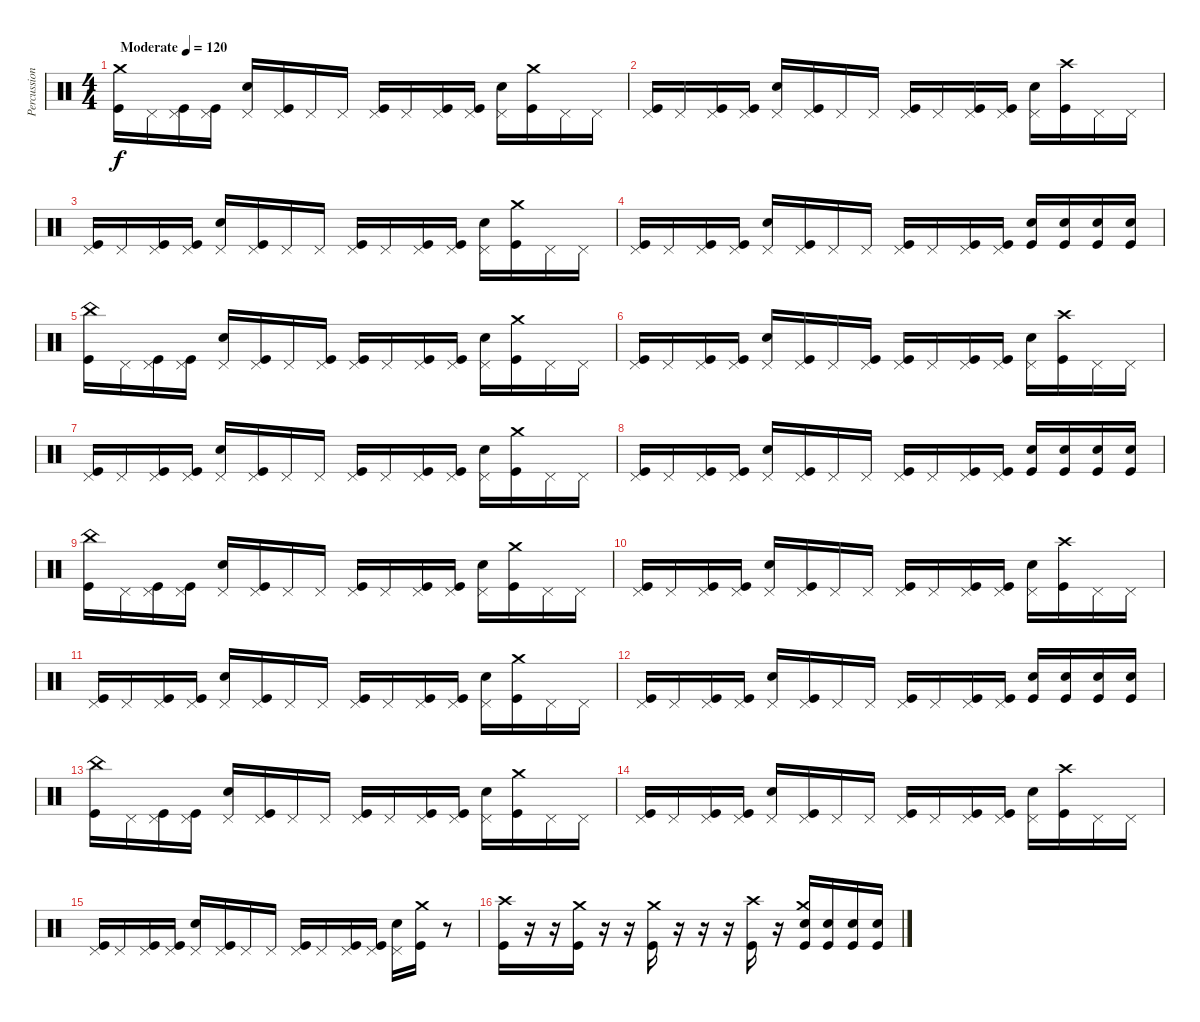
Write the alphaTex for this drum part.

\track ("Percussion" "Percussion") {instrument percussion}
\staff {score}
\articulation defaults
\ts (4 4)
\tempo (120 "Moderate")
\clef neutral
\ks c
("Kick (hit)" "Crash medium (hit)").16{dy f} "Pedal Hi-Hat (hit)".16 ("Kick (hit)" "Pedal Hi-Hat (hit)").16 ("Kick (hit)" "Pedal Hi-Hat (hit)").16 ("Electric Snare (hit)" "Pedal Hi-Hat (hit)").16 ("Kick (hit)" "Pedal Hi-Hat (hit)").16 "Pedal Hi-Hat (hit)".16 "Pedal Hi-Hat (hit)".16 ("Kick (hit)" "Pedal Hi-Hat (hit)").16 "Pedal Hi-Hat (hit)".16 ("Kick (hit)" "Pedal Hi-Hat (hit)").16 ("Kick (hit)" "Pedal Hi-Hat (hit)").16 ("Electric Snare (hit)" "Pedal Hi-Hat (hit)").16 ("Kick (hit)" "Crash medium (hit)").16 "Pedal Hi-Hat (hit)".16 "Pedal Hi-Hat (hit)".16 |
("Kick (hit)" "Pedal Hi-Hat (hit)").16 "Pedal Hi-Hat (hit)".16 ("Kick (hit)" "Pedal Hi-Hat (hit)").16 ("Kick (hit)" "Pedal Hi-Hat (hit)").16 ("Electric Snare (hit)" "Pedal Hi-Hat (hit)").16 ("Kick (hit)" "Pedal Hi-Hat (hit)").16 "Pedal Hi-Hat (hit)".16 "Pedal Hi-Hat (hit)".16 ("Kick (hit)" "Pedal Hi-Hat (hit)").16 "Pedal Hi-Hat (hit)".16 ("Kick (hit)" "Pedal Hi-Hat (hit)").16 ("Kick (hit)" "Pedal Hi-Hat (hit)").16 ("Electric Snare (hit)" "Pedal Hi-Hat (hit)").16 ("Kick (hit)" "Crash high (hit)").16 "Pedal Hi-Hat (hit)".16 "Pedal Hi-Hat (hit)".16 |
("Kick (hit)" "Pedal Hi-Hat (hit)").16 "Pedal Hi-Hat (hit)".16 ("Kick (hit)" "Pedal Hi-Hat (hit)").16 ("Kick (hit)" "Pedal Hi-Hat (hit)").16 ("Electric Snare (hit)" "Pedal Hi-Hat (hit)").16 ("Kick (hit)" "Pedal Hi-Hat (hit)").16 "Pedal Hi-Hat (hit)".16 "Pedal Hi-Hat (hit)".16 ("Kick (hit)" "Pedal Hi-Hat (hit)").16 "Pedal Hi-Hat (hit)".16 ("Kick (hit)" "Pedal Hi-Hat (hit)").16 ("Kick (hit)" "Pedal Hi-Hat (hit)").16 ("Electric Snare (hit)" "Pedal Hi-Hat (hit)").16 ("Kick (hit)" "Crash medium (hit)").16 "Pedal Hi-Hat (hit)".16 "Pedal Hi-Hat (hit)".16 |
("Kick (hit)" "Pedal Hi-Hat (hit)").16 "Pedal Hi-Hat (hit)".16 ("Kick (hit)" "Pedal Hi-Hat (hit)").16 ("Kick (hit)" "Pedal Hi-Hat (hit)").16 ("Electric Snare (hit)" "Pedal Hi-Hat (hit)").16 ("Kick (hit)" "Pedal Hi-Hat (hit)").16 "Pedal Hi-Hat (hit)".16 "Pedal Hi-Hat (hit)".16 ("Kick (hit)" "Pedal Hi-Hat (hit)").16 "Pedal Hi-Hat (hit)".16 ("Kick (hit)" "Pedal Hi-Hat (hit)").16 ("Kick (hit)" "Pedal Hi-Hat (hit)").16 ("Kick (hit)" "Electric Snare (hit)").16 ("Kick (hit)" "Electric Snare (hit)").16 ("Kick (hit)" "Electric Snare (hit)").16 ("Kick (hit)" "Electric Snare (hit)").16 |
("Kick (hit)" "China (hit)").16 "Pedal Hi-Hat (hit)".16 ("Kick (hit)" "Pedal Hi-Hat (hit)").16 ("Kick (hit)" "Pedal Hi-Hat (hit)").16 ("Electric Snare (hit)" "Pedal Hi-Hat (hit)").16 ("Kick (hit)" "Pedal Hi-Hat (hit)").16 "Pedal Hi-Hat (hit)".16 ("Kick (hit)" "Pedal Hi-Hat (hit)").16 ("Kick (hit)" "Pedal Hi-Hat (hit)").16 "Pedal Hi-Hat (hit)".16 ("Kick (hit)" "Pedal Hi-Hat (hit)").16 ("Kick (hit)" "Pedal Hi-Hat (hit)").16 ("Electric Snare (hit)" "Pedal Hi-Hat (hit)").16 ("Kick (hit)" "Crash medium (hit)").16 "Pedal Hi-Hat (hit)".16 "Pedal Hi-Hat (hit)".16 |
("Kick (hit)" "Pedal Hi-Hat (hit)").16 "Pedal Hi-Hat (hit)".16 ("Kick (hit)" "Pedal Hi-Hat (hit)").16 ("Kick (hit)" "Pedal Hi-Hat (hit)").16 ("Electric Snare (hit)" "Pedal Hi-Hat (hit)").16 ("Kick (hit)" "Pedal Hi-Hat (hit)").16 "Pedal Hi-Hat (hit)".16 ("Kick (hit)" "Pedal Hi-Hat (hit)").16 ("Kick (hit)" "Pedal Hi-Hat (hit)").16 "Pedal Hi-Hat (hit)".16 ("Kick (hit)" "Pedal Hi-Hat (hit)").16 ("Kick (hit)" "Pedal Hi-Hat (hit)").16 ("Electric Snare (hit)" "Pedal Hi-Hat (hit)").16 ("Kick (hit)" "Crash high (hit)").16 "Pedal Hi-Hat (hit)".16 "Pedal Hi-Hat (hit)".16 |
("Kick (hit)" "Pedal Hi-Hat (hit)").16 "Pedal Hi-Hat (hit)".16 ("Kick (hit)" "Pedal Hi-Hat (hit)").16 ("Kick (hit)" "Pedal Hi-Hat (hit)").16 ("Electric Snare (hit)" "Pedal Hi-Hat (hit)").16 ("Kick (hit)" "Pedal Hi-Hat (hit)").16 "Pedal Hi-Hat (hit)".16 "Pedal Hi-Hat (hit)".16 ("Kick (hit)" "Pedal Hi-Hat (hit)").16 "Pedal Hi-Hat (hit)".16 ("Kick (hit)" "Pedal Hi-Hat (hit)").16 ("Kick (hit)" "Pedal Hi-Hat (hit)").16 ("Electric Snare (hit)" "Pedal Hi-Hat (hit)").16 ("Kick (hit)" "Crash medium (hit)").16 "Pedal Hi-Hat (hit)".16 "Pedal Hi-Hat (hit)".16 |
("Kick (hit)" "Pedal Hi-Hat (hit)").16 "Pedal Hi-Hat (hit)".16 ("Kick (hit)" "Pedal Hi-Hat (hit)").16 ("Kick (hit)" "Pedal Hi-Hat (hit)").16 ("Electric Snare (hit)" "Pedal Hi-Hat (hit)").16 ("Kick (hit)" "Pedal Hi-Hat (hit)").16 "Pedal Hi-Hat (hit)".16 "Pedal Hi-Hat (hit)".16 ("Kick (hit)" "Pedal Hi-Hat (hit)").16 "Pedal Hi-Hat (hit)".16 ("Kick (hit)" "Pedal Hi-Hat (hit)").16 ("Kick (hit)" "Pedal Hi-Hat (hit)").16 ("Kick (hit)" "Electric Snare (hit)").16 ("Kick (hit)" "Electric Snare (hit)").16 ("Kick (hit)" "Electric Snare (hit)").16 ("Kick (hit)" "Electric Snare (hit)").16 |
("Kick (hit)" "China (hit)").16 "Pedal Hi-Hat (hit)".16 ("Kick (hit)" "Pedal Hi-Hat (hit)").16 ("Kick (hit)" "Pedal Hi-Hat (hit)").16 ("Electric Snare (hit)" "Pedal Hi-Hat (hit)").16 ("Kick (hit)" "Pedal Hi-Hat (hit)").16 "Pedal Hi-Hat (hit)".16 "Pedal Hi-Hat (hit)".16 ("Kick (hit)" "Pedal Hi-Hat (hit)").16 "Pedal Hi-Hat (hit)".16 ("Kick (hit)" "Pedal Hi-Hat (hit)").16 ("Kick (hit)" "Pedal Hi-Hat (hit)").16 ("Electric Snare (hit)" "Pedal Hi-Hat (hit)").16 ("Kick (hit)" "Crash medium (hit)").16 "Pedal Hi-Hat (hit)".16 "Pedal Hi-Hat (hit)".16 |
("Kick (hit)" "Pedal Hi-Hat (hit)").16 "Pedal Hi-Hat (hit)".16 ("Kick (hit)" "Pedal Hi-Hat (hit)").16 ("Kick (hit)" "Pedal Hi-Hat (hit)").16 ("Electric Snare (hit)" "Pedal Hi-Hat (hit)").16 ("Kick (hit)" "Pedal Hi-Hat (hit)").16 "Pedal Hi-Hat (hit)".16 "Pedal Hi-Hat (hit)".16 ("Kick (hit)" "Pedal Hi-Hat (hit)").16 "Pedal Hi-Hat (hit)".16 ("Kick (hit)" "Pedal Hi-Hat (hit)").16 ("Kick (hit)" "Pedal Hi-Hat (hit)").16 ("Electric Snare (hit)" "Pedal Hi-Hat (hit)").16 ("Kick (hit)" "Crash high (hit)").16 "Pedal Hi-Hat (hit)".16 "Pedal Hi-Hat (hit)".16 |
("Kick (hit)" "Pedal Hi-Hat (hit)").16 "Pedal Hi-Hat (hit)".16 ("Kick (hit)" "Pedal Hi-Hat (hit)").16 ("Kick (hit)" "Pedal Hi-Hat (hit)").16 ("Electric Snare (hit)" "Pedal Hi-Hat (hit)").16 ("Kick (hit)" "Pedal Hi-Hat (hit)").16 "Pedal Hi-Hat (hit)".16 "Pedal Hi-Hat (hit)".16 ("Kick (hit)" "Pedal Hi-Hat (hit)").16 "Pedal Hi-Hat (hit)".16 ("Kick (hit)" "Pedal Hi-Hat (hit)").16 ("Kick (hit)" "Pedal Hi-Hat (hit)").16 ("Electric Snare (hit)" "Pedal Hi-Hat (hit)").16 ("Kick (hit)" "Crash medium (hit)").16 "Pedal Hi-Hat (hit)".16 "Pedal Hi-Hat (hit)".16 |
("Kick (hit)" "Pedal Hi-Hat (hit)").16 "Pedal Hi-Hat (hit)".16 ("Kick (hit)" "Pedal Hi-Hat (hit)").16 ("Kick (hit)" "Pedal Hi-Hat (hit)").16 ("Electric Snare (hit)" "Pedal Hi-Hat (hit)").16 ("Kick (hit)" "Pedal Hi-Hat (hit)").16 "Pedal Hi-Hat (hit)".16 "Pedal Hi-Hat (hit)".16 ("Kick (hit)" "Pedal Hi-Hat (hit)").16 "Pedal Hi-Hat (hit)".16 ("Kick (hit)" "Pedal Hi-Hat (hit)").16 ("Kick (hit)" "Pedal Hi-Hat (hit)").16 ("Kick (hit)" "Electric Snare (hit)").16 ("Kick (hit)" "Electric Snare (hit)").16 ("Kick (hit)" "Electric Snare (hit)").16 ("Kick (hit)" "Electric Snare (hit)").16 |
("Kick (hit)" "China (hit)").16 "Pedal Hi-Hat (hit)".16 ("Kick (hit)" "Pedal Hi-Hat (hit)").16 ("Kick (hit)" "Pedal Hi-Hat (hit)").16 ("Electric Snare (hit)" "Pedal Hi-Hat (hit)").16 ("Kick (hit)" "Pedal Hi-Hat (hit)").16 "Pedal Hi-Hat (hit)".16 "Pedal Hi-Hat (hit)".16 ("Kick (hit)" "Pedal Hi-Hat (hit)").16 "Pedal Hi-Hat (hit)".16 ("Kick (hit)" "Pedal Hi-Hat (hit)").16 ("Kick (hit)" "Pedal Hi-Hat (hit)").16 ("Electric Snare (hit)" "Pedal Hi-Hat (hit)").16 ("Kick (hit)" "Crash medium (hit)").16 "Pedal Hi-Hat (hit)".16 "Pedal Hi-Hat (hit)".16 |
("Kick (hit)" "Pedal Hi-Hat (hit)").16 "Pedal Hi-Hat (hit)".16 ("Kick (hit)" "Pedal Hi-Hat (hit)").16 ("Kick (hit)" "Pedal Hi-Hat (hit)").16 ("Electric Snare (hit)" "Pedal Hi-Hat (hit)").16 ("Kick (hit)" "Pedal Hi-Hat (hit)").16 "Pedal Hi-Hat (hit)".16 "Pedal Hi-Hat (hit)".16 ("Kick (hit)" "Pedal Hi-Hat (hit)").16 "Pedal Hi-Hat (hit)".16 ("Kick (hit)" "Pedal Hi-Hat (hit)").16 ("Kick (hit)" "Pedal Hi-Hat (hit)").16 ("Electric Snare (hit)" "Pedal Hi-Hat (hit)").16 ("Kick (hit)" "Crash high (hit)").16 "Pedal Hi-Hat (hit)".16 "Pedal Hi-Hat (hit)".16 |
("Kick (hit)" "Pedal Hi-Hat (hit)").16 "Pedal Hi-Hat (hit)".16 ("Kick (hit)" "Pedal Hi-Hat (hit)").16 ("Kick (hit)" "Pedal Hi-Hat (hit)").16 ("Electric Snare (hit)" "Pedal Hi-Hat (hit)").16 ("Kick (hit)" "Pedal Hi-Hat (hit)").16 "Pedal Hi-Hat (hit)".16 "Pedal Hi-Hat (hit)".16 ("Kick (hit)" "Pedal Hi-Hat (hit)").16 "Pedal Hi-Hat (hit)".16 ("Kick (hit)" "Pedal Hi-Hat (hit)").16 ("Kick (hit)" "Pedal Hi-Hat (hit)").16 ("Electric Snare (hit)" "Pedal Hi-Hat (hit)").16 ("Kick (hit)" "Crash medium (hit)").16 r.8 |
("Kick (hit)" "Crash high (hit)").16 r.16 r.16 ("Kick (hit)" "Crash medium (hit)").16 r.16 r.16 ("Kick (hit)" "Crash medium (hit)").16 r.16 r.16 r.16 ("Kick (hit)" "Crash high (hit)").16 r.16 ("Kick (hit)" "Electric Snare (hit)" "Crash medium (hit)").16 ("Kick (hit)" "Electric Snare (hit)").16 ("Kick (hit)" "Electric Snare (hit)").16 ("Kick (hit)" "Electric Snare (hit)").16
